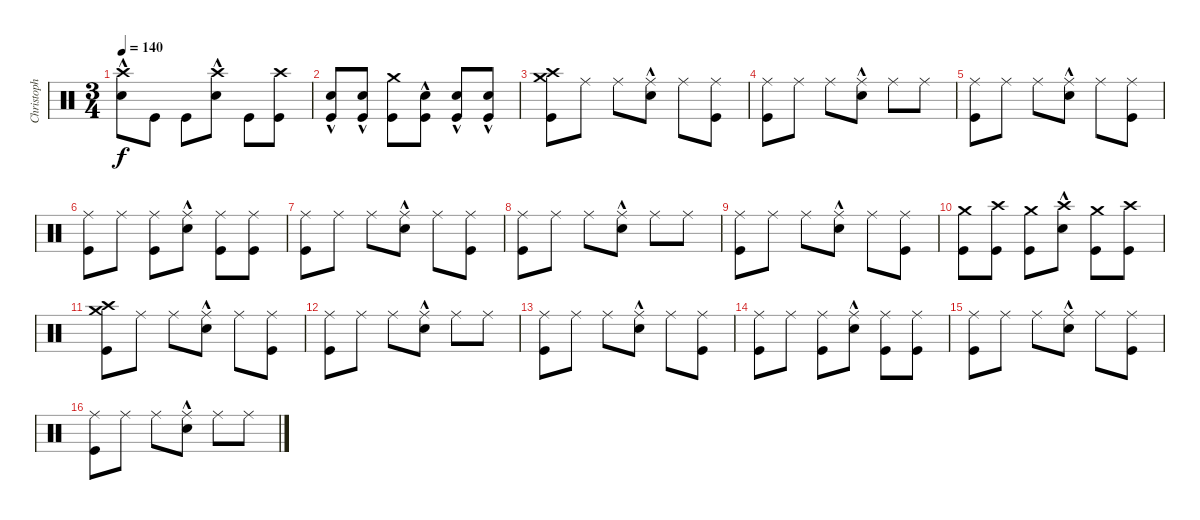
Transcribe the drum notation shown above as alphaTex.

\track ("Christoph \"Doom\" Schneider" "Christoph ") {instrument percussion}
\staff {score}
\articulation defaults
\ts (3 4)
\tempo 140
\clef neutral
\ks c
("Crash high (hit)" "Snare (hit) 2"{hac}).8{dy f} "Kick (hit)".8 "Kick (hit)".8 ("Crash high (hit)" "Snare (hit) 2"{hac}).8 "Kick (hit)".8 ("Crash high (hit)" "Kick (hit)").8 |
("Kick (hit)" "Snare (hit) 2"{hac}).8 ("Kick (hit)" "Snare (hit) 2"{hac}).8 ("Crash medium (hit)" "Kick (hit)").8 ("Kick (hit)" "Snare (hit) 2"{hac}).8 ("Kick (hit)" "Snare (hit) 2"{hac}).8 ("Kick (hit)" "Snare (hit) 2"{hac}).8 |
("Crash high (hit)" "Kick (hit)" "Crash medium (hit)").8 "Ride (middle)".8 "Ride (middle)".8 ("Ride (middle)" "Snare (hit) 2"{hac}).8 "Ride (middle)".8 ("Ride (middle)" "Kick (hit)").8 |
("Kick (hit)" "Ride (middle)").8 "Ride (middle)".8 "Ride (middle)".8 ("Ride (middle)" "Snare (hit) 2"{hac}).8 "Ride (middle)".8 "Ride (middle)".8 |
("Kick (hit)" "Ride (middle)").8 "Ride (middle)".8 "Ride (middle)".8 ("Ride (middle)" "Snare (hit) 2"{hac}).8 "Ride (middle)".8 ("Ride (middle)" "Kick (hit)").8 |
("Kick (hit)" "Ride (middle)").8 "Ride (middle)".8 ("Ride (middle)" "Kick (hit)").8 ("Ride (middle)" "Snare (hit) 2"{hac}).8 ("Ride (middle)" "Kick (hit)").8 ("Ride (middle)" "Kick (hit)").8 |
("Kick (hit)" "Ride (middle)").8 "Ride (middle)".8 "Ride (middle)".8 ("Ride (middle)" "Snare (hit) 2"{hac}).8 "Ride (middle)".8 ("Ride (middle)" "Kick (hit)").8 |
("Kick (hit)" "Ride (middle)").8 "Ride (middle)".8 "Ride (middle)".8 ("Ride (middle)" "Snare (hit) 2"{hac}).8 "Ride (middle)".8 "Ride (middle)".8 |
("Ride (middle)" "Kick (hit)").8 "Ride (middle)".8 "Ride (middle)".8 ("Ride (middle)" "Snare (hit) 2"{hac}).8 "Ride (middle)".8 ("Ride (middle)" "Kick (hit)").8 |
("Crash medium (hit)" "Kick (hit)").8 ("Crash high (hit)" "Kick (hit)").8 ("Crash medium (hit)" "Kick (hit)").8 ("Crash high (hit)" "Snare (hit) 2"{hac}).8 ("Crash medium (hit)" "Kick (hit)").8 ("Crash high (hit)" "Kick (hit)").8 |
("Crash high (hit)" "Kick (hit)" "Crash medium (hit)").8 "Ride (middle)".8 "Ride (middle)".8 ("Ride (middle)" "Snare (hit) 2"{hac}).8 "Ride (middle)".8 ("Ride (middle)" "Kick (hit)").8 |
("Kick (hit)" "Ride (middle)").8 "Ride (middle)".8 "Ride (middle)".8 ("Ride (middle)" "Snare (hit) 2"{hac}).8 "Ride (middle)".8 "Ride (middle)".8 |
("Kick (hit)" "Ride (middle)").8 "Ride (middle)".8 "Ride (middle)".8 ("Ride (middle)" "Snare (hit) 2"{hac}).8 "Ride (middle)".8 ("Ride (middle)" "Kick (hit)").8 |
("Kick (hit)" "Ride (middle)").8 "Ride (middle)".8 ("Ride (middle)" "Kick (hit)").8 ("Ride (middle)" "Snare (hit) 2"{hac}).8 ("Ride (middle)" "Kick (hit)").8 ("Ride (middle)" "Kick (hit)").8 |
("Kick (hit)" "Ride (middle)").8 "Ride (middle)".8 "Ride (middle)".8 ("Ride (middle)" "Snare (hit) 2"{hac}).8 "Ride (middle)".8 ("Ride (middle)" "Kick (hit)").8 |
("Kick (hit)" "Ride (middle)").8 "Ride (middle)".8 "Ride (middle)".8 ("Ride (middle)" "Snare (hit) 2"{hac}).8 "Ride (middle)".8 "Ride (middle)".8
